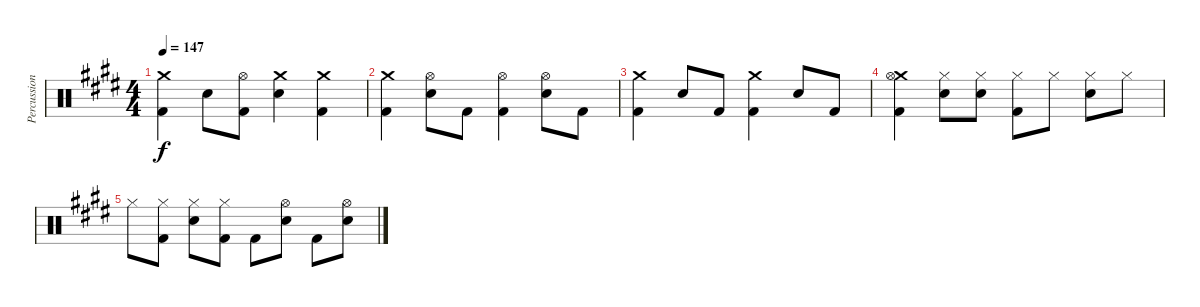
\track ("Percussion" "Percussion") {instrument percussion}
\staff {score}
\articulation defaults
\ts (4 4)
\tempo 147
\clef neutral
\ks e
("Crash medium (hit)" "Kick (hit) 2").4{dy f} "Electric Snare (hit)".8 ("Hi-Hat (open)" "Kick (hit) 2").8 ("Crash medium (hit)" "Electric Snare (hit)").4 ("Crash medium (hit)" "Kick (hit) 2").4 |
("Crash medium (hit)" "Kick (hit) 2").4 ("Hi-Hat (open)" "Electric Snare (hit)").8 "Kick (hit) 2".8 ("Hi-Hat (open)" "Kick (hit) 2").4 ("Hi-Hat (open)" "Electric Snare (hit)").8 "Kick (hit) 2".8 |
("Crash medium (hit)" "Kick (hit) 2").4 "Electric Snare (hit)".8 "Kick (hit) 2".8 ("Crash medium (hit)" "Kick (hit) 2").4 "Electric Snare (hit)".8 "Kick (hit) 2".8 |
("Crash medium (hit)" "Hi-Hat (open)" "Kick (hit) 2").4 ("Hi-Hat (closed)" "Electric Snare (hit)").8 ("Hi-Hat (closed)" "Electric Snare (hit)").8 ("Hi-Hat (closed)" "Kick (hit) 2").8 "Hi-Hat (closed)".8 ("Hi-Hat (closed)" "Electric Snare (hit)").8 "Hi-Hat (closed)".8 |
"Hi-Hat (closed)".8 ("Hi-Hat (closed)" "Kick (hit) 2").8 ("Hi-Hat (closed)" "Electric Snare (hit)").8 ("Hi-Hat (closed)" "Kick (hit) 2").8 "Kick (hit) 2".8 ("Hi-Hat (open)" "Electric Snare (hit)").8 "Kick (hit) 2".8 ("Hi-Hat (open)" "Electric Snare (hit)").8
